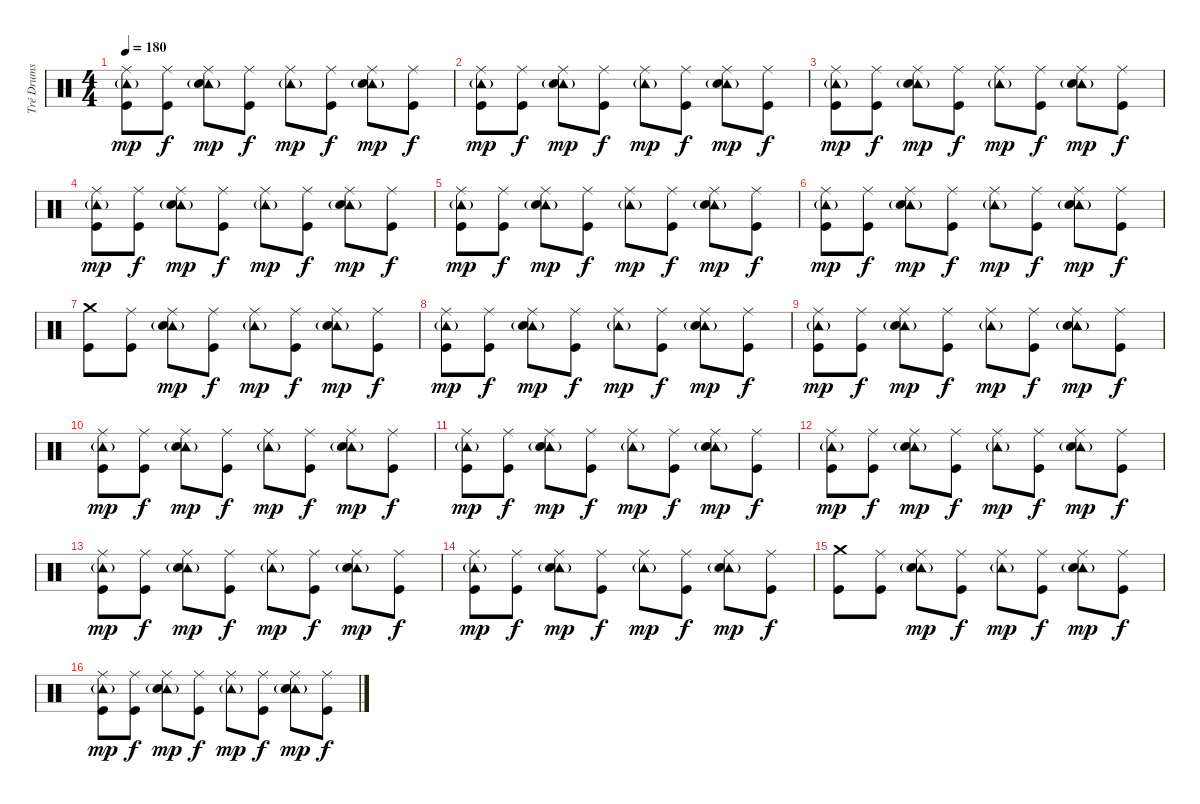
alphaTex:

\track ("Tré Drums" "Tré Drums") {instrument percussion}
\staff {score}
\articulation defaults
\ts (4 4)
\tempo 180
\clef neutral
\ks c
("Tambourine (hit)"{g} "Ride (middle)" "Kick (hit)").8{dy mp} ("Ride (middle)" "Kick (hit)").8{dy f} ("Tambourine (hit)"{g} "Ride (middle)" "Electric Snare (hit)").8{dy mp} ("Ride (middle)" "Kick (hit)").8{dy f} ("Tambourine (hit)"{g} "Ride (middle)").8{dy mp} ("Ride (middle)" "Kick (hit)").8{dy f} ("Tambourine (hit)"{g} "Ride (middle)" "Electric Snare (hit)").8{dy mp} ("Ride (middle)" "Kick (hit)").8{dy f} |
("Tambourine (hit)"{g} "Ride (middle)" "Kick (hit)").8{dy mp} ("Ride (middle)" "Kick (hit)").8{dy f} ("Tambourine (hit)"{g} "Ride (middle)" "Electric Snare (hit)").8{dy mp} ("Ride (middle)" "Kick (hit)").8{dy f} ("Tambourine (hit)"{g} "Ride (middle)").8{dy mp} ("Ride (middle)" "Kick (hit)").8{dy f} ("Tambourine (hit)"{g} "Ride (middle)" "Electric Snare (hit)").8{dy mp} ("Ride (middle)" "Kick (hit)").8{dy f} |
("Tambourine (hit)"{g} "Ride (middle)" "Kick (hit)").8{dy mp} ("Ride (middle)" "Kick (hit)").8{dy f} ("Tambourine (hit)"{g} "Ride (middle)" "Electric Snare (hit)").8{dy mp} ("Ride (middle)" "Kick (hit)").8{dy f} ("Tambourine (hit)"{g} "Ride (middle)").8{dy mp} ("Ride (middle)" "Kick (hit)").8{dy f} ("Tambourine (hit)"{g} "Ride (middle)" "Electric Snare (hit)").8{dy mp} ("Ride (middle)" "Kick (hit)").8{dy f} |
("Tambourine (hit)"{g} "Ride (middle)" "Kick (hit)").8{dy mp} ("Ride (middle)" "Kick (hit)").8{dy f} ("Tambourine (hit)"{g} "Ride (middle)" "Electric Snare (hit)").8{dy mp} ("Ride (middle)" "Kick (hit)").8{dy f} ("Tambourine (hit)"{g} "Ride (middle)").8{dy mp} ("Ride (middle)" "Kick (hit)").8{dy f} ("Tambourine (hit)"{g} "Ride (middle)" "Electric Snare (hit)").8{dy mp} ("Ride (middle)" "Kick (hit)").8{dy f} |
("Tambourine (hit)"{g} "Ride (middle)" "Kick (hit)").8{dy mp} ("Ride (middle)" "Kick (hit)").8{dy f} ("Tambourine (hit)"{g} "Ride (middle)" "Electric Snare (hit)").8{dy mp} ("Ride (middle)" "Kick (hit)").8{dy f} ("Tambourine (hit)"{g} "Ride (middle)").8{dy mp} ("Ride (middle)" "Kick (hit)").8{dy f} ("Tambourine (hit)"{g} "Ride (middle)" "Electric Snare (hit)").8{dy mp} ("Ride (middle)" "Kick (hit)").8{dy f} |
("Tambourine (hit)"{g} "Ride (middle)" "Kick (hit)").8{dy mp} ("Ride (middle)" "Kick (hit)").8{dy f} ("Tambourine (hit)"{g} "Ride (middle)" "Electric Snare (hit)").8{dy mp} ("Ride (middle)" "Kick (hit)").8{dy f} ("Tambourine (hit)"{g} "Ride (middle)").8{dy mp} ("Ride (middle)" "Kick (hit)").8{dy f} ("Tambourine (hit)"{g} "Ride (middle)" "Electric Snare (hit)").8{dy mp} ("Ride (middle)" "Kick (hit)").8{dy f} |
("Crash medium (hit)" "Kick (hit)").8 ("Ride (middle)" "Kick (hit)").8 ("Tambourine (hit)"{g} "Ride (middle)" "Electric Snare (hit)").8{dy mp} ("Ride (middle)" "Kick (hit)").8{dy f} ("Tambourine (hit)"{g} "Ride (middle)").8{dy mp} ("Ride (middle)" "Kick (hit)").8{dy f} ("Tambourine (hit)"{g} "Ride (middle)" "Electric Snare (hit)").8{dy mp} ("Ride (middle)" "Kick (hit)").8{dy f} |
("Tambourine (hit)"{g} "Ride (middle)" "Kick (hit)").8{dy mp} ("Ride (middle)" "Kick (hit)").8{dy f} ("Tambourine (hit)"{g} "Ride (middle)" "Electric Snare (hit)").8{dy mp} ("Ride (middle)" "Kick (hit)").8{dy f} ("Tambourine (hit)"{g} "Ride (middle)").8{dy mp} ("Ride (middle)" "Kick (hit)").8{dy f} ("Tambourine (hit)"{g} "Ride (middle)" "Electric Snare (hit)").8{dy mp} ("Ride (middle)" "Kick (hit)").8{dy f} |
("Tambourine (hit)"{g} "Ride (middle)" "Kick (hit)").8{dy mp} ("Ride (middle)" "Kick (hit)").8{dy f} ("Tambourine (hit)"{g} "Ride (middle)" "Electric Snare (hit)").8{dy mp} ("Ride (middle)" "Kick (hit)").8{dy f} ("Tambourine (hit)"{g} "Ride (middle)").8{dy mp} ("Ride (middle)" "Kick (hit)").8{dy f} ("Tambourine (hit)"{g} "Ride (middle)" "Electric Snare (hit)").8{dy mp} ("Ride (middle)" "Kick (hit)").8{dy f} |
("Tambourine (hit)"{g} "Ride (middle)" "Kick (hit)").8{dy mp} ("Ride (middle)" "Kick (hit)").8{dy f} ("Tambourine (hit)"{g} "Ride (middle)" "Electric Snare (hit)").8{dy mp} ("Ride (middle)" "Kick (hit)").8{dy f} ("Tambourine (hit)"{g} "Ride (middle)").8{dy mp} ("Ride (middle)" "Kick (hit)").8{dy f} ("Tambourine (hit)"{g} "Ride (middle)" "Electric Snare (hit)").8{dy mp} ("Ride (middle)" "Kick (hit)").8{dy f} |
("Tambourine (hit)"{g} "Ride (middle)" "Kick (hit)").8{dy mp} ("Ride (middle)" "Kick (hit)").8{dy f} ("Tambourine (hit)"{g} "Ride (middle)" "Electric Snare (hit)").8{dy mp} ("Ride (middle)" "Kick (hit)").8{dy f} ("Tambourine (hit)"{g} "Ride (middle)").8{dy mp} ("Ride (middle)" "Kick (hit)").8{dy f} ("Tambourine (hit)"{g} "Ride (middle)" "Electric Snare (hit)").8{dy mp} ("Ride (middle)" "Kick (hit)").8{dy f} |
("Tambourine (hit)"{g} "Ride (middle)" "Kick (hit)").8{dy mp} ("Ride (middle)" "Kick (hit)").8{dy f} ("Tambourine (hit)"{g} "Ride (middle)" "Electric Snare (hit)").8{dy mp} ("Ride (middle)" "Kick (hit)").8{dy f} ("Tambourine (hit)"{g} "Ride (middle)").8{dy mp} ("Ride (middle)" "Kick (hit)").8{dy f} ("Tambourine (hit)"{g} "Ride (middle)" "Electric Snare (hit)").8{dy mp} ("Ride (middle)" "Kick (hit)").8{dy f} |
("Tambourine (hit)"{g} "Ride (middle)" "Kick (hit)").8{dy mp} ("Ride (middle)" "Kick (hit)").8{dy f} ("Tambourine (hit)"{g} "Ride (middle)" "Electric Snare (hit)").8{dy mp} ("Ride (middle)" "Kick (hit)").8{dy f} ("Tambourine (hit)"{g} "Ride (middle)").8{dy mp} ("Ride (middle)" "Kick (hit)").8{dy f} ("Tambourine (hit)"{g} "Ride (middle)" "Electric Snare (hit)").8{dy mp} ("Ride (middle)" "Kick (hit)").8{dy f} |
("Tambourine (hit)"{g} "Ride (middle)" "Kick (hit)").8{dy mp} ("Ride (middle)" "Kick (hit)").8{dy f} ("Tambourine (hit)"{g} "Ride (middle)" "Electric Snare (hit)").8{dy mp} ("Ride (middle)" "Kick (hit)").8{dy f} ("Tambourine (hit)"{g} "Ride (middle)").8{dy mp} ("Ride (middle)" "Kick (hit)").8{dy f} ("Tambourine (hit)"{g} "Ride (middle)" "Electric Snare (hit)").8{dy mp} ("Ride (middle)" "Kick (hit)").8{dy f} |
("Crash medium (hit)" "Kick (hit)").8 ("Ride (middle)" "Kick (hit)").8 ("Tambourine (hit)"{g} "Ride (middle)" "Electric Snare (hit)").8{dy mp} ("Ride (middle)" "Kick (hit)").8{dy f} ("Tambourine (hit)"{g} "Ride (middle)").8{dy mp} ("Ride (middle)" "Kick (hit)").8{dy f} ("Tambourine (hit)"{g} "Ride (middle)" "Electric Snare (hit)").8{dy mp} ("Ride (middle)" "Kick (hit)").8{dy f} |
("Tambourine (hit)"{g} "Ride (middle)" "Kick (hit)").8{dy mp} ("Ride (middle)" "Kick (hit)").8{dy f} ("Tambourine (hit)"{g} "Ride (middle)" "Electric Snare (hit)").8{dy mp} ("Ride (middle)" "Kick (hit)").8{dy f} ("Tambourine (hit)"{g} "Ride (middle)").8{dy mp} ("Ride (middle)" "Kick (hit)").8{dy f} ("Tambourine (hit)"{g} "Ride (middle)" "Electric Snare (hit)").8{dy mp} ("Ride (middle)" "Kick (hit)").8{dy f}
